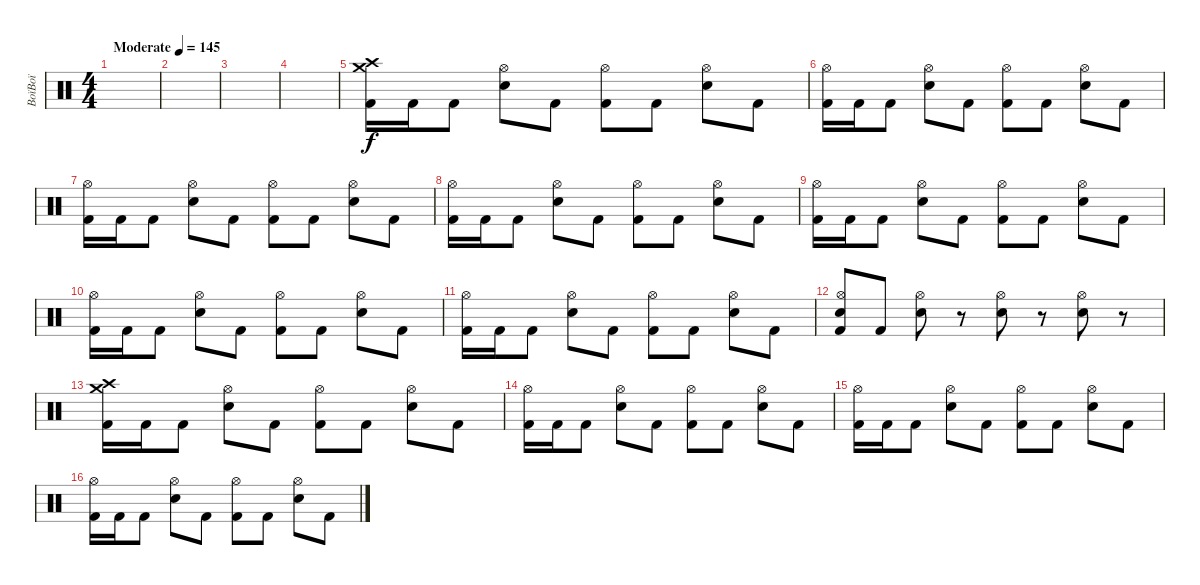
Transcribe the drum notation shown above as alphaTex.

\track ("BoïBoï" "BoïBoï") {instrument percussion}
\staff {score}
\articulation defaults
\ts (4 4)
\tempo (145 "Moderate")
\clef neutral
\ks c
|
|
|
|
("Crash medium (hit)" "Crash high (hit)" "Kick (hit) 2").16 "Kick (hit) 2".16 "Kick (hit) 2".8 ("Hi-Hat (open)" "Electric Snare (hit)").8 "Kick (hit) 2".8 ("Hi-Hat (open)" "Kick (hit) 2").8 "Kick (hit) 2".8 ("Hi-Hat (open)" "Electric Snare (hit)").8 "Kick (hit) 2".8 |
("Hi-Hat (open)" "Kick (hit) 2").16 "Kick (hit) 2".16 "Kick (hit) 2".8 ("Hi-Hat (open)" "Electric Snare (hit)").8 "Kick (hit) 2".8 ("Hi-Hat (open)" "Kick (hit) 2").8 "Kick (hit) 2".8 ("Hi-Hat (open)" "Electric Snare (hit)").8 "Kick (hit) 2".8 |
("Hi-Hat (open)" "Kick (hit) 2").16 "Kick (hit) 2".16 "Kick (hit) 2".8 ("Hi-Hat (open)" "Electric Snare (hit)").8 "Kick (hit) 2".8 ("Hi-Hat (open)" "Kick (hit) 2").8 "Kick (hit) 2".8 ("Hi-Hat (open)" "Electric Snare (hit)").8 "Kick (hit) 2".8 |
("Hi-Hat (open)" "Kick (hit) 2").16 "Kick (hit) 2".16 "Kick (hit) 2".8 ("Hi-Hat (open)" "Electric Snare (hit)").8 "Kick (hit) 2".8 ("Hi-Hat (open)" "Kick (hit) 2").8 "Kick (hit) 2".8 ("Hi-Hat (open)" "Electric Snare (hit)").8 "Kick (hit) 2".8 |
("Hi-Hat (open)" "Kick (hit) 2").16 "Kick (hit) 2".16 "Kick (hit) 2".8 ("Hi-Hat (open)" "Electric Snare (hit)").8 "Kick (hit) 2".8 ("Hi-Hat (open)" "Kick (hit) 2").8 "Kick (hit) 2".8 ("Hi-Hat (open)" "Electric Snare (hit)").8 "Kick (hit) 2".8 |
("Hi-Hat (open)" "Kick (hit) 2").16 "Kick (hit) 2".16 "Kick (hit) 2".8 ("Hi-Hat (open)" "Electric Snare (hit)").8 "Kick (hit) 2".8 ("Hi-Hat (open)" "Kick (hit) 2").8 "Kick (hit) 2".8 ("Hi-Hat (open)" "Electric Snare (hit)").8 "Kick (hit) 2".8 |
("Hi-Hat (open)" "Kick (hit) 2").16 "Kick (hit) 2".16 "Kick (hit) 2".8 ("Hi-Hat (open)" "Electric Snare (hit)").8 "Kick (hit) 2".8 ("Hi-Hat (open)" "Kick (hit) 2").8 "Kick (hit) 2".8 ("Hi-Hat (open)" "Electric Snare (hit)").8 "Kick (hit) 2".8 |
("Hi-Hat (open)" "Electric Snare (hit)" "Kick (hit) 2").8 "Kick (hit) 2".8 ("Hi-Hat (open)" "Electric Snare (hit)").8 r.8 ("Hi-Hat (open)" "Electric Snare (hit)").8 r.8 ("Hi-Hat (open)" "Electric Snare (hit)").8 r.8 |
("Crash medium (hit)" "Crash high (hit)" "Kick (hit) 2").16 "Kick (hit) 2".16 "Kick (hit) 2".8 ("Hi-Hat (open)" "Electric Snare (hit)").8 "Kick (hit) 2".8 ("Hi-Hat (open)" "Kick (hit) 2").8 "Kick (hit) 2".8 ("Hi-Hat (open)" "Electric Snare (hit)").8 "Kick (hit) 2".8 |
("Hi-Hat (open)" "Kick (hit) 2").16 "Kick (hit) 2".16 "Kick (hit) 2".8 ("Hi-Hat (open)" "Electric Snare (hit)").8 "Kick (hit) 2".8 ("Hi-Hat (open)" "Kick (hit) 2").8 "Kick (hit) 2".8 ("Hi-Hat (open)" "Electric Snare (hit)").8 "Kick (hit) 2".8 |
("Hi-Hat (open)" "Kick (hit) 2").16 "Kick (hit) 2".16 "Kick (hit) 2".8 ("Hi-Hat (open)" "Electric Snare (hit)").8 "Kick (hit) 2".8 ("Hi-Hat (open)" "Kick (hit) 2").8 "Kick (hit) 2".8 ("Hi-Hat (open)" "Electric Snare (hit)").8 "Kick (hit) 2".8 |
("Hi-Hat (open)" "Kick (hit) 2").16 "Kick (hit) 2".16 "Kick (hit) 2".8 ("Hi-Hat (open)" "Electric Snare (hit)").8 "Kick (hit) 2".8 ("Hi-Hat (open)" "Kick (hit) 2").8 "Kick (hit) 2".8 ("Hi-Hat (open)" "Electric Snare (hit)").8 "Kick (hit) 2".8
